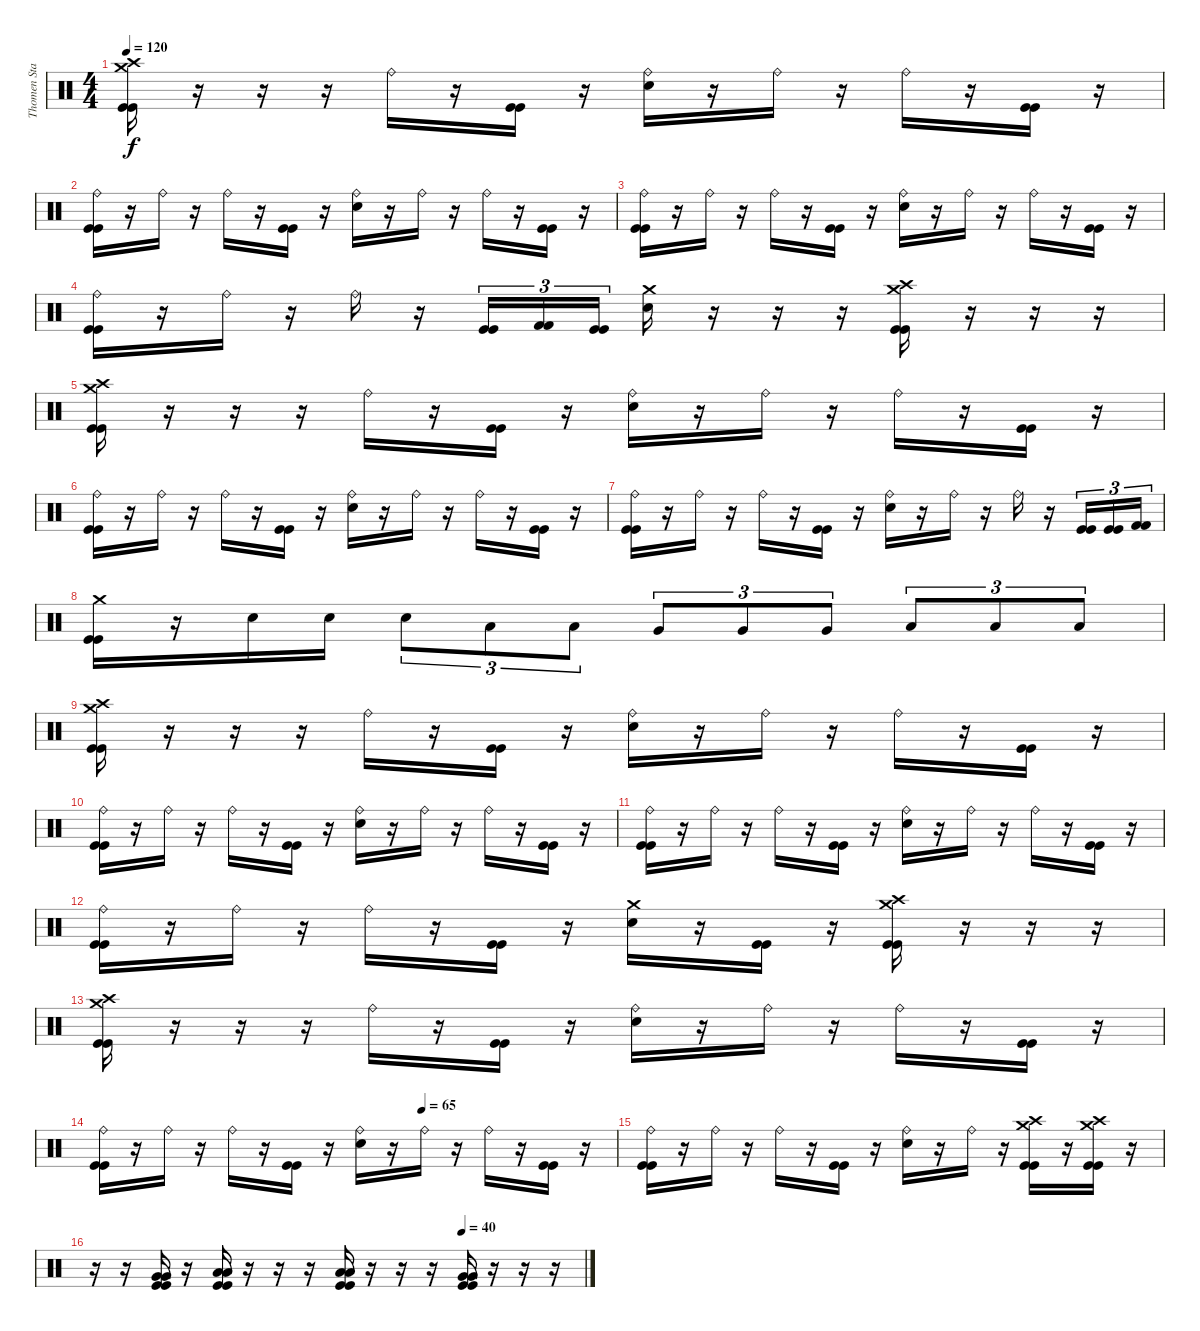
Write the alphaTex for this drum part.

\track ("Thomen Stauch" "Thomen Sta") {instrument percussion}
\staff {score}
\articulation defaults
\ts (4 4)
\tempo 120
\clef neutral
\ks c
("Crash medium (hit)" "Crash high (hit)" "Kick (hit)" "Kick (hit)").16{dy f} r.16 r.16 r.16 "Ride (bell)".16 r.16 ("Kick (hit)" "Kick (hit)").16 r.16 ("Ride (bell)" "Snare (hit) 2").16 r.16 "Ride (bell)".16 r.16 "Ride (bell)".16 r.16 ("Kick (hit)" "Kick (hit)").16 r.16 |
("Ride (bell)" "Kick (hit)" "Kick (hit)").16 r.16 "Ride (bell)".16 r.16 "Ride (bell)".16 r.16 ("Kick (hit)" "Kick (hit)").16 r.16 ("Ride (bell)" "Snare (hit) 2").16 r.16 "Ride (bell)".16 r.16 "Ride (bell)".16 r.16 ("Kick (hit)" "Kick (hit)").16 r.16 |
("Ride (bell)" "Kick (hit)" "Kick (hit)").16 r.16 "Ride (bell)".16 r.16 "Ride (bell)".16 r.16 ("Kick (hit)" "Kick (hit)").16 r.16 ("Ride (bell)" "Snare (hit) 2").16 r.16 "Ride (bell)".16 r.16 "Ride (bell)".16 r.16 ("Kick (hit)" "Kick (hit)").16 r.16 |
("Ride (bell)" "Kick (hit)" "Kick (hit)").16 r.16 "Ride (bell)".16 r.16 "Ride (bell)".16 r.16 ("Kick (hit)" "Kick (hit)").16{tu (3 2)} ("Kick (hit) 2" "Kick (hit) 2").16{tu (3 2)} ("Kick (hit)" "Kick (hit)").16{tu (3 2)} ("Crash medium (hit)" "Snare (hit) 2").16 r.16 r.16 r.16 ("Crash medium (hit)" "Crash high (hit)" "Kick (hit)" "Kick (hit)").16 r.16 r.16 r.16 |
("Crash medium (hit)" "Crash high (hit)" "Kick (hit)" "Kick (hit)").16 r.16 r.16 r.16 "Ride (bell)".16 r.16 ("Kick (hit)" "Kick (hit)").16 r.16 ("Ride (bell)" "Snare (hit) 2").16 r.16 "Ride (bell)".16 r.16 "Ride (bell)".16 r.16 ("Kick (hit)" "Kick (hit)").16 r.16 |
("Ride (bell)" "Kick (hit)" "Kick (hit)").16 r.16 "Ride (bell)".16 r.16 "Ride (bell)".16 r.16 ("Kick (hit)" "Kick (hit)").16 r.16 ("Ride (bell)" "Snare (hit) 2").16 r.16 "Ride (bell)".16 r.16 "Ride (bell)".16 r.16 ("Kick (hit)" "Kick (hit)").16 r.16 |
("Ride (bell)" "Kick (hit)" "Kick (hit)").16 r.16 "Ride (bell)".16 r.16 "Ride (bell)".16 r.16 ("Kick (hit)" "Kick (hit)").16 r.16 ("Ride (bell)" "Snare (hit) 2").16 r.16 "Ride (bell)".16 r.16 "Ride (bell)".16 r.16 ("Kick (hit)" "Kick (hit)").16{tu (3 2)} ("Kick (hit)" "Kick (hit)").16{tu (3 2)} ("Kick (hit) 2" "Kick (hit) 2").16{tu (3 2)} |
("Crash medium (hit)" "Kick (hit)" "Kick (hit)").16 r.16 "Snare (hit) 2".16 "Snare (hit) 2".16 "Snare (hit) 2".8{tu (3 2)} "Low Tom (hit)".8{tu (3 2)} "Low Tom (hit)".8{tu (3 2)} "Very Low Tom (hit)".8{tu (3 2)} "Very Low Tom (hit)".8{tu (3 2)} "Very Low Tom (hit)".8{tu (3 2)} "Low Floor Tom (hit)".8{tu (3 2)} "Low Floor Tom (hit)".8{tu (3 2)} "Low Floor Tom (hit)".8{tu (3 2)} |
("Crash medium (hit)" "Crash high (hit)" "Kick (hit)" "Kick (hit)").16 r.16 r.16 r.16 "Ride (bell)".16 r.16 ("Kick (hit)" "Kick (hit)").16 r.16 ("Ride (bell)" "Snare (hit) 2").16 r.16 "Ride (bell)".16 r.16 "Ride (bell)".16 r.16 ("Kick (hit)" "Kick (hit)").16 r.16 |
("Ride (bell)" "Kick (hit)" "Kick (hit)").16 r.16 "Ride (bell)".16 r.16 "Ride (bell)".16 r.16 ("Kick (hit)" "Kick (hit)").16 r.16 ("Ride (bell)" "Snare (hit) 2").16 r.16 "Ride (bell)".16 r.16 "Ride (bell)".16 r.16 ("Kick (hit)" "Kick (hit)").16 r.16 |
("Ride (bell)" "Kick (hit)" "Kick (hit)").16 r.16 "Ride (bell)".16 r.16 "Ride (bell)".16 r.16 ("Kick (hit)" "Kick (hit)").16 r.16 ("Ride (bell)" "Snare (hit) 2").16 r.16 "Ride (bell)".16 r.16 "Ride (bell)".16 r.16 ("Kick (hit)" "Kick (hit)").16 r.16 |
("Ride (bell)" "Kick (hit)" "Kick (hit)").16 r.16 "Ride (bell)".16 r.16 "Ride (bell)".16 r.16 ("Kick (hit)" "Kick (hit)").16 r.16 ("Crash medium (hit)" "Snare (hit) 2").16 r.16 ("Kick (hit)" "Kick (hit)").16 r.16 ("Crash medium (hit)" "Crash high (hit)" "Kick (hit)" "Kick (hit)").16 r.16 r.16 r.16 |
("Crash medium (hit)" "Crash high (hit)" "Kick (hit)" "Kick (hit)").16 r.16 r.16 r.16 "Ride (bell)".16 r.16 ("Kick (hit)" "Kick (hit)").16 r.16 ("Ride (bell)" "Snare (hit) 2").16 r.16 "Ride (bell)".16 r.16 "Ride (bell)".16 r.16 ("Kick (hit)" "Kick (hit)").16 r.16 |
\tempo (65 0.625)
("Ride (bell)" "Kick (hit)" "Kick (hit)").16 r.16 "Ride (bell)".16 r.16 "Ride (bell)".16 r.16 ("Kick (hit)" "Kick (hit)").16 r.16 ("Ride (bell)" "Snare (hit) 2").16 r.16 "Ride (bell)".16 r.16 "Ride (bell)".16 r.16 ("Kick (hit)" "Kick (hit)").16 r.16 |
("Ride (bell)" "Kick (hit)" "Kick (hit)").16 r.16 "Ride (bell)".16 r.16 "Ride (bell)".16 r.16 ("Kick (hit)" "Kick (hit)").16 r.16 ("Ride (bell)" "Snare (hit) 2").16 r.16 "Ride (bell)".16 r.16 ("Crash medium (hit)" "Crash high (hit)" "Kick (hit)" "Kick (hit)").16 r.16 ("Crash medium (hit)" "Crash high (hit)" "Kick (hit)" "Kick (hit)").16 r.16 |
\tempo (40 0.75)
r.16 r.16 ("Very Low Tom (hit)" "Very Low Tom (hit)" "Kick (hit)" "Kick (hit)").16 r.16 ("Low Floor Tom (hit)" "Low Floor Tom (hit)" "Kick (hit)" "Kick (hit)").16 r.16 r.16 r.16 ("Low Tom (hit)" "Low Tom (hit)" "Kick (hit)" "Kick (hit)").16 r.16 r.16 r.16 ("Very Low Tom (hit)" "Very Low Tom (hit)" "Kick (hit)" "Kick (hit)").16 r.16 r.16 r.16
